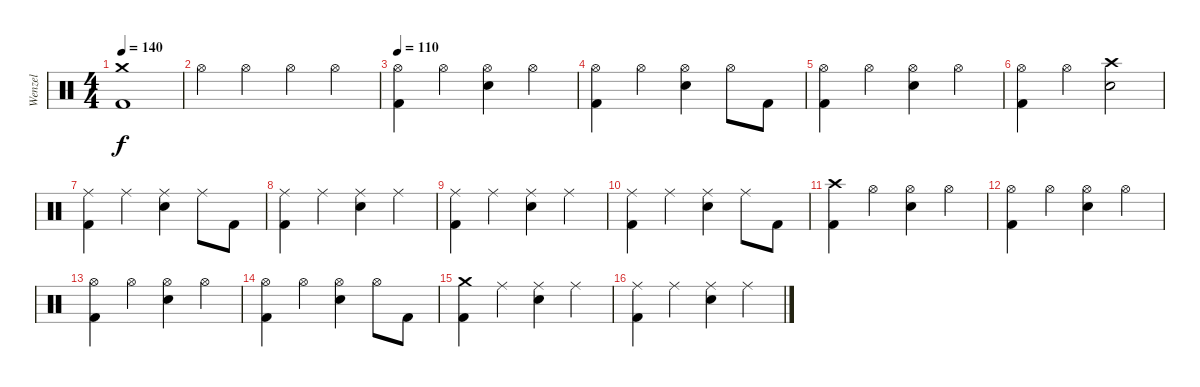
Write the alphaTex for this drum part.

\track ("Wenzel" "Wenzel") {instrument percussion}
\staff {score}
\articulation defaults
\ts (4 4)
\tempo 140
\clef neutral
\ks c
("Crash medium (hit)" "Kick (hit) 2").1{dy f} |
"Hi-Hat (open)".4 "Hi-Hat (open)".4 "Hi-Hat (open)".4 "Hi-Hat (open)".4 |
\tempo 110
("Hi-Hat (open)" "Kick (hit) 2").4 "Hi-Hat (open)".4 ("Hi-Hat (open)" "Snare (hit) 2").4 "Hi-Hat (open)".4 |
("Hi-Hat (open)" "Kick (hit) 2").4 "Hi-Hat (open)".4 ("Hi-Hat (open)" "Snare (hit) 2").4 "Hi-Hat (open)".8 "Kick (hit) 2".8 |
("Hi-Hat (open)" "Kick (hit) 2").4 "Hi-Hat (open)".4 ("Hi-Hat (open)" "Snare (hit) 2").4 "Hi-Hat (open)".4 |
("Hi-Hat (open)" "Kick (hit) 2").4 "Hi-Hat (open)".4 ("Crash high (hit)" "Snare (hit) 2").2 |
("Ride (middle)" "Kick (hit) 2").4 "Ride (middle)".4 ("Ride (middle)" "Snare (hit) 2").4 "Ride (middle)".8 "Kick (hit) 2".8 |
("Ride (middle)" "Kick (hit) 2").4 "Ride (middle)".4 ("Ride (middle)" "Snare (hit) 2").4 "Ride (middle)".4 |
("Ride (middle)" "Kick (hit) 2").4 "Ride (middle)".4 ("Ride (middle)" "Snare (hit) 2").4 "Ride (middle)".4 |
("Ride (middle)" "Kick (hit) 2").4 "Ride (middle)".4 ("Ride (middle)" "Snare (hit) 2").4 "Ride (middle)".8 "Kick (hit) 2".8 |
("Crash high (hit)" "Kick (hit) 2").4 "Hi-Hat (open)".4 ("Hi-Hat (open)" "Snare (hit) 2").4 "Hi-Hat (open)".4 |
("Hi-Hat (open)" "Kick (hit) 2").4 "Hi-Hat (open)".4 ("Hi-Hat (open)" "Snare (hit) 2").4 "Hi-Hat (open)".4 |
("Hi-Hat (open)" "Kick (hit) 2").4 "Hi-Hat (open)".4 ("Hi-Hat (open)" "Snare (hit) 2").4 "Hi-Hat (open)".4 |
("Hi-Hat (open)" "Kick (hit) 2").4 "Hi-Hat (open)".4 ("Hi-Hat (open)" "Snare (hit) 2").4 "Hi-Hat (open)".8 "Kick (hit) 2".8 |
("Crash medium (hit)" "Kick (hit) 2").4 "Ride (middle)".4 ("Ride (middle)" "Snare (hit) 2").4 "Ride (middle)".4 |
("Ride (middle)" "Kick (hit) 2").4 "Ride (middle)".4 ("Ride (middle)" "Snare (hit) 2").4 "Ride (middle)".4
